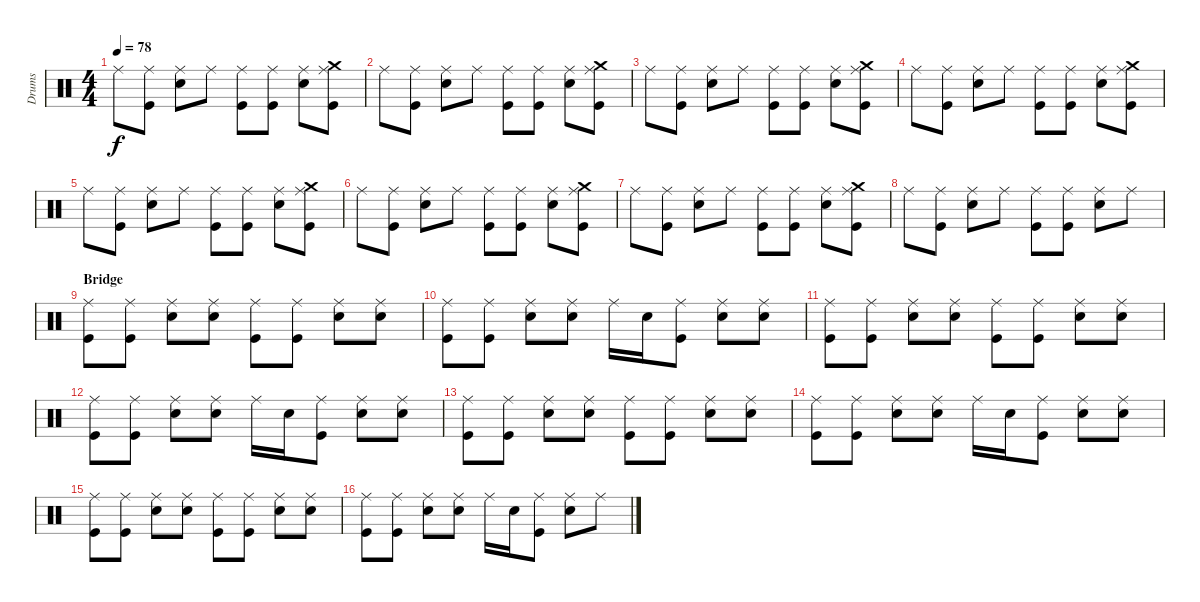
\track ("Drums" "Drums") {instrument percussion}
\staff {score}
\articulation defaults
\ts (4 4)
\tempo 78
\clef neutral
\ks c "Ride (middle)".8{dy f}
("Ride (middle)" "Kick (hit)").8 ("Ride (middle)" "Snare (hit) 2").8 "Ride (middle)".8 ("Ride (middle)" "Kick (hit)").8 ("Ride (middle)" "Kick (hit)").8 ("Ride (middle)" "Snare (hit) 2").8 ("Ride (middle)" "Crash medium (hit)" "Kick (hit)").8 |
"Ride (middle)".8 ("Ride (middle)" "Kick (hit)").8 ("Ride (middle)" "Snare (hit) 2").8 "Ride (middle)".8 ("Ride (middle)" "Kick (hit)").8 ("Ride (middle)" "Kick (hit)").8 ("Ride (middle)" "Snare (hit) 2").8 ("Ride (middle)" "Crash medium (hit)" "Kick (hit)").8 |
"Ride (middle)".8 ("Ride (middle)" "Kick (hit)").8 ("Ride (middle)" "Snare (hit) 2").8 "Ride (middle)".8 ("Ride (middle)" "Kick (hit)").8 ("Ride (middle)" "Kick (hit)").8 ("Ride (middle)" "Snare (hit) 2").8 ("Ride (middle)" "Crash medium (hit)" "Kick (hit)").8 |
"Ride (middle)".8 ("Ride (middle)" "Kick (hit)").8 ("Ride (middle)" "Snare (hit) 2").8 "Ride (middle)".8 ("Ride (middle)" "Kick (hit)").8 ("Ride (middle)" "Kick (hit)").8 ("Ride (middle)" "Snare (hit) 2").8 ("Ride (middle)" "Crash medium (hit)" "Kick (hit)").8 |
"Ride (middle)".8 ("Ride (middle)" "Kick (hit)").8 ("Ride (middle)" "Snare (hit) 2").8 "Ride (middle)".8 ("Ride (middle)" "Kick (hit)").8 ("Ride (middle)" "Kick (hit)").8 ("Ride (middle)" "Snare (hit) 2").8 ("Ride (middle)" "Crash medium (hit)" "Kick (hit)").8 |
"Ride (middle)".8 ("Ride (middle)" "Kick (hit)").8 ("Ride (middle)" "Snare (hit) 2").8 "Ride (middle)".8 ("Ride (middle)" "Kick (hit)").8 ("Ride (middle)" "Kick (hit)").8 ("Ride (middle)" "Snare (hit) 2").8 ("Ride (middle)" "Crash medium (hit)" "Kick (hit)").8 |
"Ride (middle)".8 ("Ride (middle)" "Kick (hit)").8 ("Ride (middle)" "Snare (hit) 2").8 "Ride (middle)".8 ("Ride (middle)" "Kick (hit)").8 ("Ride (middle)" "Kick (hit)").8 ("Ride (middle)" "Snare (hit) 2").8 ("Ride (middle)" "Crash medium (hit)" "Kick (hit)").8 |
"Ride (middle)".8 ("Ride (middle)" "Kick (hit)").8 ("Ride (middle)" "Snare (hit) 2").8 "Ride (middle)".8 ("Ride (middle)" "Kick (hit)").8 ("Ride (middle)" "Kick (hit)").8 ("Ride (middle)" "Snare (hit) 2").8 "Ride (middle)".8 |
\section ("" "Bridge")
("Ride (middle)" "Kick (hit)").8 ("Ride (middle)" "Kick (hit)").8 ("Ride (middle)" "Snare (hit) 2").8 ("Ride (middle)" "Snare (hit) 2").8 ("Ride (middle)" "Kick (hit)").8 ("Ride (middle)" "Kick (hit)").8 ("Ride (middle)" "Snare (hit) 2").8 ("Ride (middle)" "Snare (hit) 2").8 |
("Ride (middle)" "Kick (hit)").8 ("Ride (middle)" "Kick (hit)").8 ("Ride (middle)" "Snare (hit) 2").8 ("Ride (middle)" "Snare (hit) 2").8 "Ride (middle)".16 "Snare (hit) 2".16 ("Ride (middle)" "Kick (hit)").8 ("Ride (middle)" "Snare (hit) 2").8 ("Ride (middle)" "Snare (hit) 2").8 |
("Ride (middle)" "Kick (hit)").8 ("Ride (middle)" "Kick (hit)").8 ("Ride (middle)" "Snare (hit) 2").8 ("Ride (middle)" "Snare (hit) 2").8 ("Ride (middle)" "Kick (hit)").8 ("Ride (middle)" "Kick (hit)").8 ("Ride (middle)" "Snare (hit) 2").8 ("Ride (middle)" "Snare (hit) 2").8 |
("Ride (middle)" "Kick (hit)").8 ("Ride (middle)" "Kick (hit)").8 ("Ride (middle)" "Snare (hit) 2").8 ("Ride (middle)" "Snare (hit) 2").8 "Ride (middle)".16 "Snare (hit) 2".16 ("Ride (middle)" "Kick (hit)").8 ("Ride (middle)" "Snare (hit) 2").8 ("Ride (middle)" "Snare (hit) 2").8 |
("Ride (middle)" "Kick (hit)").8 ("Ride (middle)" "Kick (hit)").8 ("Ride (middle)" "Snare (hit) 2").8 ("Ride (middle)" "Snare (hit) 2").8 ("Ride (middle)" "Kick (hit)").8 ("Ride (middle)" "Kick (hit)").8 ("Ride (middle)" "Snare (hit) 2").8 ("Ride (middle)" "Snare (hit) 2").8 |
("Ride (middle)" "Kick (hit)").8 ("Ride (middle)" "Kick (hit)").8 ("Ride (middle)" "Snare (hit) 2").8 ("Ride (middle)" "Snare (hit) 2").8 "Ride (middle)".16 "Snare (hit) 2".16 ("Ride (middle)" "Kick (hit)").8 ("Ride (middle)" "Snare (hit) 2").8 ("Ride (middle)" "Snare (hit) 2").8 |
("Ride (middle)" "Kick (hit)").8 ("Ride (middle)" "Kick (hit)").8 ("Ride (middle)" "Snare (hit) 2").8 ("Ride (middle)" "Snare (hit) 2").8 ("Ride (middle)" "Kick (hit)").8 ("Ride (middle)" "Kick (hit)").8 ("Ride (middle)" "Snare (hit) 2").8 ("Ride (middle)" "Snare (hit) 2").8 |
("Ride (middle)" "Kick (hit)").8 ("Ride (middle)" "Kick (hit)").8 ("Ride (middle)" "Snare (hit) 2").8 ("Ride (middle)" "Snare (hit) 2").8 "Ride (middle)".16 "Snare (hit) 2".16 ("Ride (middle)" "Kick (hit)").8 ("Ride (middle)" "Snare (hit) 2").8 "Ride (middle)".8
